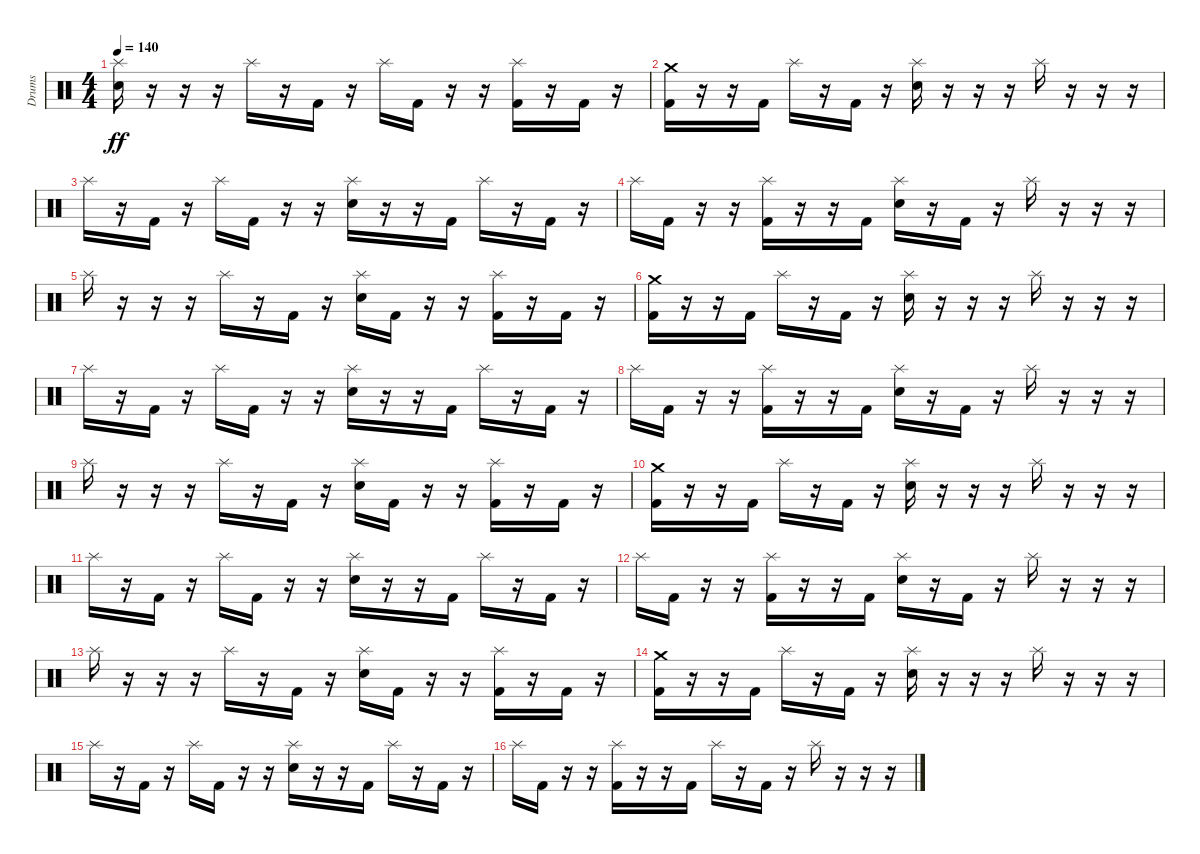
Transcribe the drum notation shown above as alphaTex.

\track ("Drums" "Drums") {instrument percussion}
\staff {score}
\articulation defaults
\ts (4 4)
\tempo 140
\clef neutral
\ks c
("Splash (hit)" "Electric Snare (hit)").16{dy ff} r.16 r.16 r.16 "Splash (hit)".16 r.16 "Kick (hit) 2".16 r.16 "Splash (hit)".16 "Kick (hit) 2".16 r.16 r.16 ("Splash (hit)" "Kick (hit) 2").16 r.16 "Kick (hit) 2".16 r.16 |
("Crash medium (hit)" "Kick (hit) 2").16{volume 9} r.16 r.16 "Kick (hit) 2".16 "Splash (hit)".16 r.16 "Kick (hit) 2".16 r.16 ("Splash (hit)" "Electric Snare (hit)").16 r.16 r.16 r.16 "Splash (hit)".16 r.16 r.16 r.16 |
"Splash (hit)".16 r.16 "Kick (hit) 2".16 r.16 "Splash (hit)".16 "Kick (hit) 2".16 r.16 r.16 ("Splash (hit)" "Electric Snare (hit)").16 r.16 r.16 "Kick (hit) 2".16 "Splash (hit)".16 r.16 "Kick (hit) 2".16 r.16 |
"Splash (hit)".16 "Kick (hit) 2".16 r.16 r.16 ("Splash (hit)" "Kick (hit) 2").16 r.16 r.16 "Kick (hit) 2".16 ("Splash (hit)" "Electric Snare (hit)").16 r.16 "Kick (hit) 2".16 r.16 "Splash (hit)".16 r.16 r.16 r.16 |
"Splash (hit)".16 r.16 r.16 r.16 "Splash (hit)".16 r.16 "Kick (hit) 2".16 r.16 ("Splash (hit)" "Electric Snare (hit)").16 "Kick (hit) 2".16 r.16 r.16 ("Splash (hit)" "Kick (hit) 2").16 r.16 "Kick (hit) 2".16 r.16 |
("Crash medium (hit)" "Kick (hit) 2").16{volume 7} r.16 r.16 "Kick (hit) 2".16 "Splash (hit)".16 r.16 "Kick (hit) 2".16 r.16 ("Splash (hit)" "Electric Snare (hit)").16 r.16 r.16 r.16 "Splash (hit)".16 r.16 r.16 r.16 |
"Splash (hit)".16 r.16 "Kick (hit) 2".16 r.16 "Splash (hit)".16 "Kick (hit) 2".16 r.16 r.16 ("Splash (hit)" "Electric Snare (hit)").16 r.16 r.16 "Kick (hit) 2".16 "Splash (hit)".16 r.16 "Kick (hit) 2".16 r.16 |
"Splash (hit)".16 "Kick (hit) 2".16 r.16 r.16 ("Splash (hit)" "Kick (hit) 2").16 r.16 r.16 "Kick (hit) 2".16 ("Splash (hit)" "Electric Snare (hit)").16 r.16 "Kick (hit) 2".16 r.16 "Splash (hit)".16 r.16 r.16 r.16 |
"Splash (hit)".16 r.16 r.16 r.16 "Splash (hit)".16 r.16 "Kick (hit) 2".16 r.16 ("Splash (hit)" "Electric Snare (hit)").16 "Kick (hit) 2".16 r.16 r.16 ("Splash (hit)" "Kick (hit) 2").16 r.16 "Kick (hit) 2".16 r.16 |
("Crash medium (hit)" "Kick (hit) 2").16{volume 3} r.16 r.16 "Kick (hit) 2".16 "Splash (hit)".16 r.16 "Kick (hit) 2".16 r.16 ("Splash (hit)" "Electric Snare (hit)").16 r.16 r.16 r.16 "Splash (hit)".16 r.16 r.16 r.16 |
"Splash (hit)".16 r.16 "Kick (hit) 2".16 r.16 "Splash (hit)".16 "Kick (hit) 2".16 r.16 r.16 ("Splash (hit)" "Electric Snare (hit)").16 r.16 r.16 "Kick (hit) 2".16 "Splash (hit)".16 r.16 "Kick (hit) 2".16 r.16 |
"Splash (hit)".16 "Kick (hit) 2".16 r.16 r.16 ("Splash (hit)" "Kick (hit) 2").16 r.16 r.16 "Kick (hit) 2".16 ("Splash (hit)" "Electric Snare (hit)").16 r.16 "Kick (hit) 2".16 r.16 "Splash (hit)".16 r.16 r.16 r.16 |
"Splash (hit)".16 r.16 r.16 r.16 "Splash (hit)".16 r.16 "Kick (hit) 2".16 r.16 ("Splash (hit)" "Electric Snare (hit)").16 "Kick (hit) 2".16 r.16 r.16 ("Splash (hit)" "Kick (hit) 2").16 r.16 "Kick (hit) 2".16 r.16 |
("Crash medium (hit)" "Kick (hit) 2").16{volume 0} r.16 r.16 "Kick (hit) 2".16 "Splash (hit)".16 r.16 "Kick (hit) 2".16 r.16 ("Splash (hit)" "Electric Snare (hit)").16 r.16 r.16 r.16 "Splash (hit)".16 r.16 r.16 r.16 |
"Splash (hit)".16 r.16 "Kick (hit) 2".16 r.16 "Splash (hit)".16 "Kick (hit) 2".16 r.16 r.16 ("Splash (hit)" "Electric Snare (hit)").16 r.16 r.16 "Kick (hit) 2".16 "Splash (hit)".16 r.16 "Kick (hit) 2".16 r.16 |
"Splash (hit)".16 "Kick (hit) 2".16 r.16 r.16 ("Splash (hit)" "Kick (hit) 2").16 r.16 r.16 "Kick (hit) 2".16 "Splash (hit)".16 r.16 "Kick (hit) 2".16 r.16 "Splash (hit)".16 r.16 r.16 r.16
